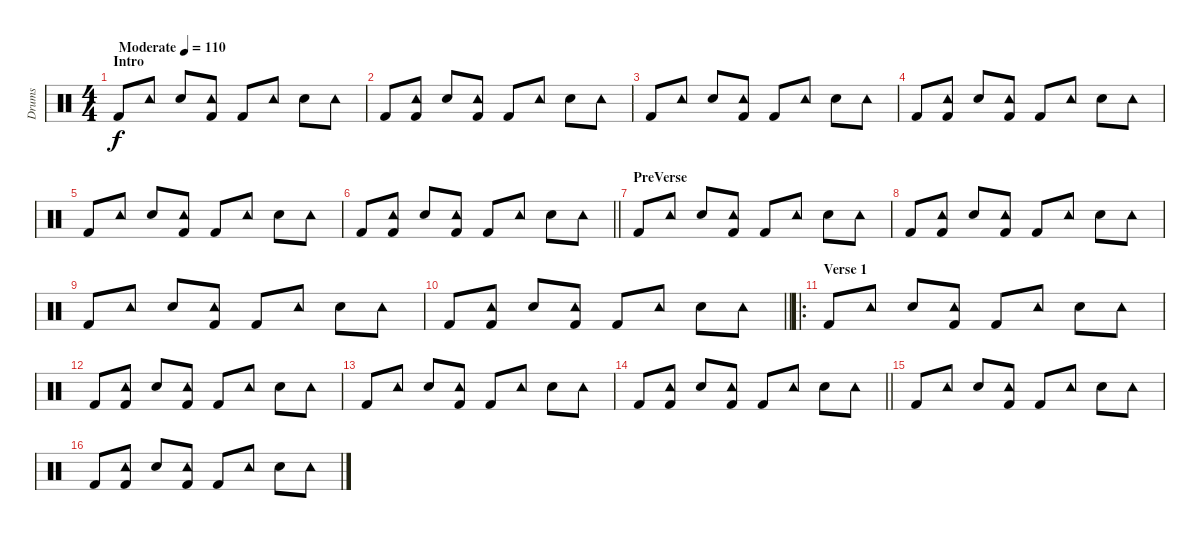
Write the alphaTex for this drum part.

\track ("Drums" "Drums") {instrument percussion}
\staff {score}
\articulation defaults
\ts (4 4)
\section ("" "Intro")
\tempo (110 "Moderate")
\clef neutral
\ks c "Kick (hit) 2".8{dy f} "Tambourine (hit)".8 "Snare (hit) 2".8
("Tambourine (hit)" "Kick (hit) 2").8 "Kick (hit) 2".8 "Tambourine (hit)".8 "Snare (hit) 2".8 "Tambourine (hit)".8 |
"Kick (hit) 2".8 ("Tambourine (hit)" "Kick (hit) 2").8 "Snare (hit) 2".8 ("Tambourine (hit)" "Kick (hit) 2").8 "Kick (hit) 2".8 "Tambourine (hit)".8 "Snare (hit) 2".8 "Tambourine (hit)".8 |
"Kick (hit) 2".8 "Tambourine (hit)".8 "Snare (hit) 2".8 ("Tambourine (hit)" "Kick (hit) 2").8 "Kick (hit) 2".8 "Tambourine (hit)".8 "Snare (hit) 2".8 "Tambourine (hit)".8 |
"Kick (hit) 2".8 ("Tambourine (hit)" "Kick (hit) 2").8 "Snare (hit) 2".8 ("Tambourine (hit)" "Kick (hit) 2").8 "Kick (hit) 2".8 "Tambourine (hit)".8 "Snare (hit) 2".8 "Tambourine (hit)".8 |
"Kick (hit) 2".8 "Tambourine (hit)".8 "Snare (hit) 2".8 ("Tambourine (hit)" "Kick (hit) 2").8 "Kick (hit) 2".8 "Tambourine (hit)".8 "Snare (hit) 2".8 "Tambourine (hit)".8 |
\barLineRight lightlight "Kick (hit) 2".8
("Tambourine (hit)" "Kick (hit) 2").8 "Snare (hit) 2".8 ("Tambourine (hit)" "Kick (hit) 2").8 "Kick (hit) 2".8 "Tambourine (hit)".8 "Snare (hit) 2".8 "Tambourine (hit)".8 |
\section ("" "PreVerse")
"Kick (hit) 2".8 "Tambourine (hit)".8 "Snare (hit) 2".8 ("Tambourine (hit)" "Kick (hit) 2").8 "Kick (hit) 2".8 "Tambourine (hit)".8 "Snare (hit) 2".8 "Tambourine (hit)".8 |
"Kick (hit) 2".8 ("Tambourine (hit)" "Kick (hit) 2").8 "Snare (hit) 2".8 ("Tambourine (hit)" "Kick (hit) 2").8 "Kick (hit) 2".8 "Tambourine (hit)".8 "Snare (hit) 2".8 "Tambourine (hit)".8 |
"Kick (hit) 2".8 "Tambourine (hit)".8 "Snare (hit) 2".8 ("Tambourine (hit)" "Kick (hit) 2").8 "Kick (hit) 2".8 "Tambourine (hit)".8 "Snare (hit) 2".8 "Tambourine (hit)".8 |
\barLineRight lightlight "Kick (hit) 2".8
("Tambourine (hit)" "Kick (hit) 2").8 "Snare (hit) 2".8 ("Tambourine (hit)" "Kick (hit) 2").8 "Kick (hit) 2".8 "Tambourine (hit)".8 "Snare (hit) 2".8 "Tambourine (hit)".8 |
\ro
\section ("" "Verse 1")
"Kick (hit) 2".8 "Tambourine (hit)".8 "Snare (hit) 2".8 ("Tambourine (hit)" "Kick (hit) 2").8 "Kick (hit) 2".8 "Tambourine (hit)".8 "Snare (hit) 2".8 "Tambourine (hit)".8 |
"Kick (hit) 2".8 ("Tambourine (hit)" "Kick (hit) 2").8 "Snare (hit) 2".8 ("Tambourine (hit)" "Kick (hit) 2").8 "Kick (hit) 2".8 "Tambourine (hit)".8 "Snare (hit) 2".8 "Tambourine (hit)".8 |
"Kick (hit) 2".8 "Tambourine (hit)".8 "Snare (hit) 2".8 ("Tambourine (hit)" "Kick (hit) 2").8 "Kick (hit) 2".8 "Tambourine (hit)".8 "Snare (hit) 2".8 "Tambourine (hit)".8 |
\barLineRight lightlight "Kick (hit) 2".8
("Tambourine (hit)" "Kick (hit) 2").8 "Snare (hit) 2".8 ("Tambourine (hit)" "Kick (hit) 2").8 "Kick (hit) 2".8 "Tambourine (hit)".8 "Snare (hit) 2".8 "Tambourine (hit)".8 |
"Kick (hit) 2".8 "Tambourine (hit)".8 "Snare (hit) 2".8 ("Tambourine (hit)" "Kick (hit) 2").8 "Kick (hit) 2".8 "Tambourine (hit)".8 "Snare (hit) 2".8 "Tambourine (hit)".8 |
"Kick (hit) 2".8 ("Tambourine (hit)" "Kick (hit) 2").8 "Snare (hit) 2".8 ("Tambourine (hit)" "Kick (hit) 2").8 "Kick (hit) 2".8 "Tambourine (hit)".8 "Snare (hit) 2".8 "Tambourine (hit)".8
